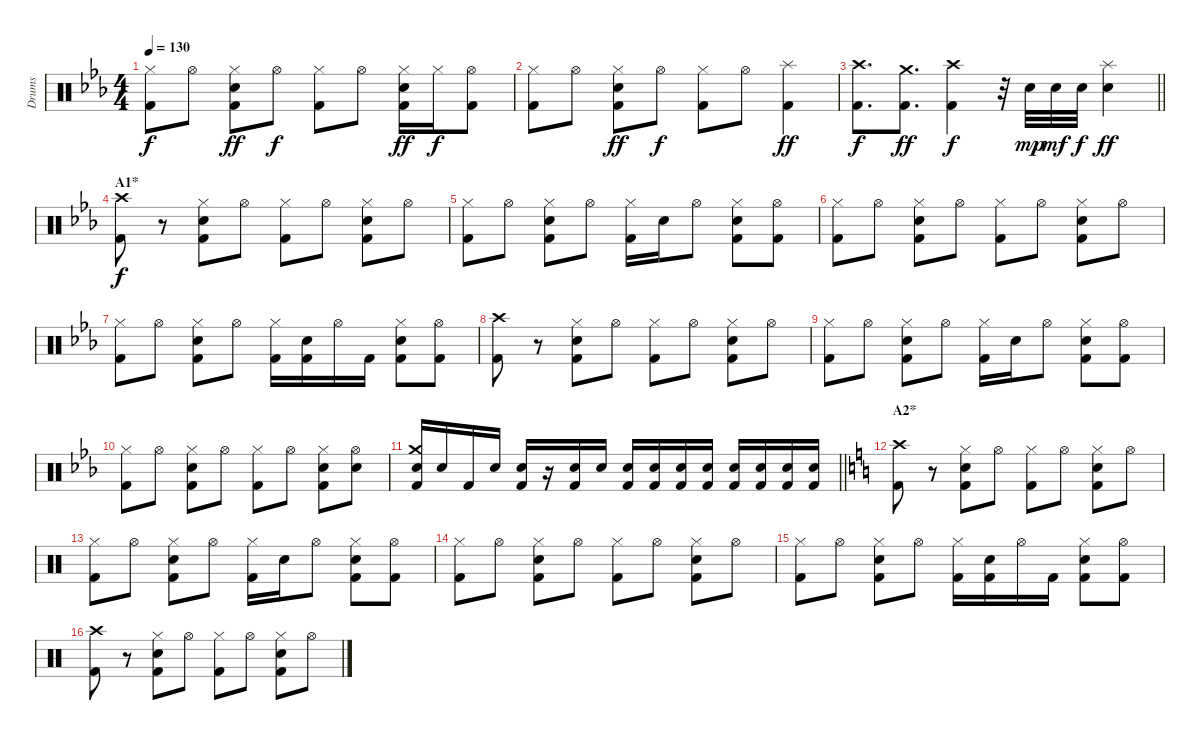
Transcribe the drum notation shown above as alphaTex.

\track ("Drums" "Drums") {instrument percussion}
\staff {score}
\articulation defaults
\ts (4 4)
\tempo 130
\clef neutral
\ks eb
("Hi-Hat (closed)" "Kick (hit) 2").8{dy f} "Hi-Hat (open)".8 ("Hi-Hat (closed)" "Hand Clap (hit)" "Kick (hit) 2").8{dy ff} "Hi-Hat (open)".8{dy f} ("Hi-Hat (closed)" "Kick (hit) 2").8 "Hi-Hat (open)".8 ("Hi-Hat (closed)" "Hand Clap (hit)" "Kick (hit) 2").16{dy ff} "Hi-Hat (closed)".16{dy f} ("Hi-Hat (open)" "Kick (hit) 2").8 |
("Hi-Hat (closed)" "Kick (hit) 2").8 "Hi-Hat (open)".8 ("Hi-Hat (closed)" "Hand Clap (hit)" "Kick (hit) 2").8{dy ff} "Hi-Hat (open)".8{dy f} ("Hi-Hat (closed)" "Kick (hit) 2").8 "Hi-Hat (open)".8 ("Splash (hit)" "Kick (hit) 2").4{dy ff} |
\barLineRight lightlight
("Crash high (hit)" "Kick (hit) 2").8{d dy f} ("Crash medium (hit)" "Kick (hit) 2").8{d dy ff} ("Crash high (hit)" "Kick (hit) 2").4{dy f} r.32 "Electric Snare (hit)".32{dy mp} "Electric Snare (hit)".32{dy mf} "Electric Snare (hit)".32{dy f} ("Splash (hit)" "Electric Snare (hit)").4{dy ff} |
\section ("" "A1*")
("Crash high (hit)" "Kick (hit) 2").8{dy f} r.8 ("Hi-Hat (closed)" "Electric Snare (hit)" "Kick (hit) 2").8 "Hi-Hat (open)".8 ("Hi-Hat (closed)" "Kick (hit) 2").8 "Hi-Hat (open)".8 ("Hi-Hat (closed)" "Electric Snare (hit)" "Kick (hit) 2").8 "Hi-Hat (open)".8 |
("Hi-Hat (closed)" "Kick (hit) 2").8 "Hi-Hat (open)".8 ("Hi-Hat (closed)" "Electric Snare (hit)" "Kick (hit) 2").8 "Hi-Hat (open)".8 ("Hi-Hat (closed)" "Kick (hit) 2").16 "Electric Snare (hit)".16 "Hi-Hat (open)".8 ("Hi-Hat (closed)" "Electric Snare (hit)" "Kick (hit) 2").8 ("Hi-Hat (open)" "Kick (hit) 2").8 |
("Hi-Hat (closed)" "Kick (hit) 2").8 "Hi-Hat (open)".8 ("Hi-Hat (closed)" "Electric Snare (hit)" "Kick (hit) 2").8 "Hi-Hat (open)".8 ("Hi-Hat (closed)" "Kick (hit) 2").8 "Hi-Hat (open)".8 ("Hi-Hat (closed)" "Electric Snare (hit)" "Kick (hit) 2").8 "Hi-Hat (open)".8 |
("Hi-Hat (closed)" "Kick (hit) 2").8 "Hi-Hat (open)".8 ("Hi-Hat (closed)" "Electric Snare (hit)" "Kick (hit) 2").8 "Hi-Hat (open)".8 ("Hi-Hat (closed)" "Kick (hit) 2").16 ("Electric Snare (hit)" "Kick (hit) 2").16 "Hi-Hat (open)".16 "Kick (hit) 2".16 ("Hi-Hat (closed)" "Electric Snare (hit)" "Kick (hit) 2").8 ("Hi-Hat (open)" "Kick (hit) 2").8 |
("Crash high (hit)" "Kick (hit) 2").8 r.8 ("Hi-Hat (closed)" "Electric Snare (hit)" "Kick (hit) 2").8 "Hi-Hat (open)".8 ("Hi-Hat (closed)" "Kick (hit) 2").8 "Hi-Hat (open)".8 ("Hi-Hat (closed)" "Electric Snare (hit)" "Kick (hit) 2").8 "Hi-Hat (open)".8 |
("Hi-Hat (closed)" "Kick (hit) 2").8 "Hi-Hat (open)".8 ("Hi-Hat (closed)" "Electric Snare (hit)" "Kick (hit) 2").8 "Hi-Hat (open)".8 ("Hi-Hat (closed)" "Kick (hit) 2").16 "Electric Snare (hit)".16 "Hi-Hat (open)".8 ("Hi-Hat (closed)" "Electric Snare (hit)" "Kick (hit) 2").8 ("Hi-Hat (open)" "Kick (hit) 2").8 |
("Hi-Hat (closed)" "Kick (hit) 2").8 "Hi-Hat (open)".8 ("Hi-Hat (closed)" "Electric Snare (hit)" "Kick (hit) 2").8 "Hi-Hat (open)".8 ("Hi-Hat (closed)" "Kick (hit) 2").8 "Hi-Hat (open)".8 ("Hi-Hat (closed)" "Electric Snare (hit)" "Kick (hit) 2").8 ("Hi-Hat (open)" "Electric Snare (hit)").8 |
\barLineRight lightlight
("Crash medium (hit)" "Electric Snare (hit)" "Kick (hit) 2").16 "Electric Snare (hit)".16 "Kick (hit) 2".16 "Electric Snare (hit)".16 ("Electric Snare (hit)" "Kick (hit) 2").16 r.16 ("Electric Snare (hit)" "Kick (hit) 2").16 "Electric Snare (hit)".16 ("Electric Snare (hit)" "Kick (hit) 2").16 ("Electric Snare (hit)" "Kick (hit) 2").16 ("Electric Snare (hit)" "Kick (hit) 2").16 ("Electric Snare (hit)" "Kick (hit) 2").16 ("Electric Snare (hit)" "Kick (hit) 2").16 ("Electric Snare (hit)" "Kick (hit) 2").16 ("Electric Snare (hit)" "Kick (hit) 2").16 ("Electric Snare (hit)" "Kick (hit) 2").16 |
\section ("" "A2*")
\ks c
("Crash high (hit)" "Kick (hit) 2").8 r.8 ("Hi-Hat (closed)" "Electric Snare (hit)" "Kick (hit) 2").8 "Hi-Hat (open)".8 ("Hi-Hat (closed)" "Kick (hit) 2").8 "Hi-Hat (open)".8 ("Hi-Hat (closed)" "Electric Snare (hit)" "Kick (hit) 2").8 "Hi-Hat (open)".8 |
("Hi-Hat (closed)" "Kick (hit) 2").8 "Hi-Hat (open)".8 ("Hi-Hat (closed)" "Electric Snare (hit)" "Kick (hit) 2").8 "Hi-Hat (open)".8 ("Hi-Hat (closed)" "Kick (hit) 2").16 "Electric Snare (hit)".16 "Hi-Hat (open)".8 ("Hi-Hat (closed)" "Electric Snare (hit)" "Kick (hit) 2").8 ("Hi-Hat (open)" "Kick (hit) 2").8 |
("Hi-Hat (closed)" "Kick (hit) 2").8 "Hi-Hat (open)".8 ("Hi-Hat (closed)" "Electric Snare (hit)" "Kick (hit) 2").8 "Hi-Hat (open)".8 ("Hi-Hat (closed)" "Kick (hit) 2").8 "Hi-Hat (open)".8 ("Hi-Hat (closed)" "Electric Snare (hit)" "Kick (hit) 2").8 "Hi-Hat (open)".8 |
("Hi-Hat (closed)" "Kick (hit) 2").8 "Hi-Hat (open)".8 ("Hi-Hat (closed)" "Electric Snare (hit)" "Kick (hit) 2").8 "Hi-Hat (open)".8 ("Hi-Hat (closed)" "Kick (hit) 2").16 ("Electric Snare (hit)" "Kick (hit) 2").16 "Hi-Hat (open)".16 "Kick (hit) 2".16 ("Hi-Hat (closed)" "Electric Snare (hit)" "Kick (hit) 2").8 ("Hi-Hat (open)" "Kick (hit) 2").8 |
("Crash high (hit)" "Kick (hit) 2").8 r.8 ("Hi-Hat (closed)" "Electric Snare (hit)" "Kick (hit) 2").8 "Hi-Hat (open)".8 ("Hi-Hat (closed)" "Kick (hit) 2").8 "Hi-Hat (open)".8 ("Hi-Hat (closed)" "Electric Snare (hit)" "Kick (hit) 2").8 "Hi-Hat (open)".8
